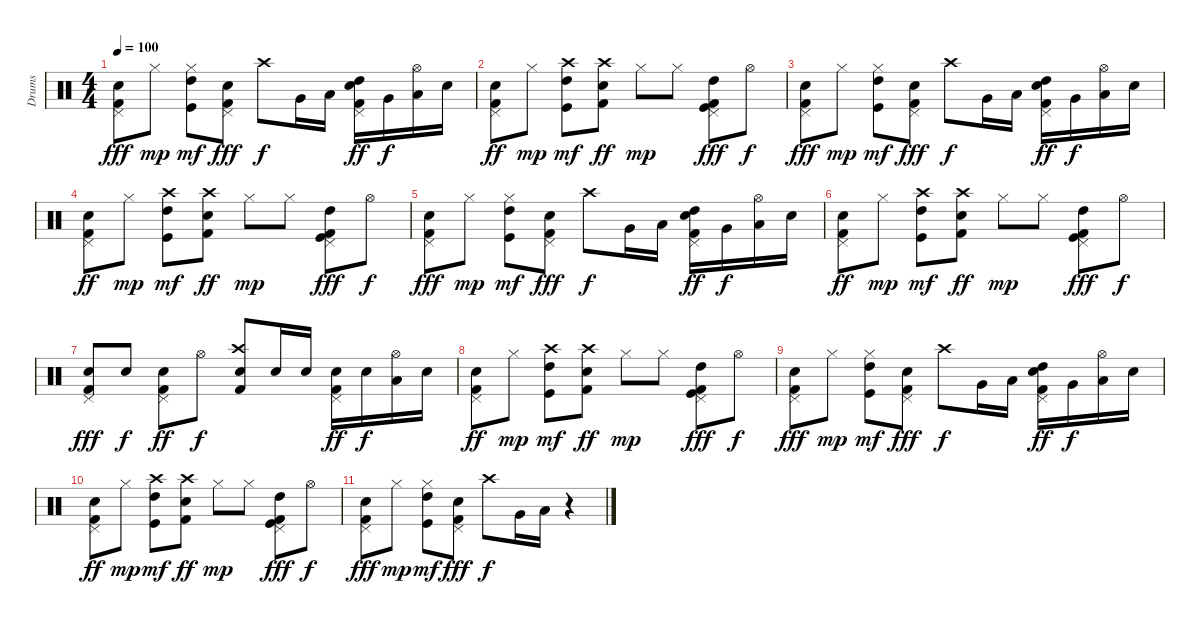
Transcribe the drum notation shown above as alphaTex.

\track ("Drums" "Drums") {instrument percussion}
\staff {score}
\articulation defaults
\ts (4 4)
\tempo 100
\clef neutral
\ks c
("Pedal Hi-Hat (hit)" "Snare (hit) 2" "Kick (hit) 2").8{dy fff} "Hi-Hat (closed)".8{dy mp} ("Hi-Hat (closed)" "Kick (hit)" "High Tom (hit)").8{dy mf} ("Pedal Hi-Hat (hit)" "Snare (hit) 2" "Kick (hit) 2").8{dy fff} "Crash high (hit)".8{dy f} "Very Low Tom (hit)".16 "Low Tom (hit)".16 ("Pedal Hi-Hat (hit)" "Snare (hit) 2" "High Tom (hit)" "Kick (hit) 2").16{dy ff} "Very Low Tom (hit)".16{dy f} ("Hi-Hat (open)" "Low Tom (hit)").16 "Snare (hit) 2".16 |
("Pedal Hi-Hat (hit)" "Snare (hit) 2" "Kick (hit) 2").8{dy ff} "Hi-Hat (closed)".8{dy mp} ("Crash high (hit)" "Kick (hit)" "High Tom (hit)").8{dy mf} ("Crash high (hit)" "Snare (hit) 2" "Kick (hit) 2").8{dy ff} "Hi-Hat (closed)".8{dy mp} "Hi-Hat (closed)".8 ("Pedal Hi-Hat (hit)" "Kick (hit)" "High Tom (hit)" "Kick (hit) 2").8{dy fff} "Hi-Hat (open)".8{dy f} |
("Pedal Hi-Hat (hit)" "Snare (hit) 2" "Kick (hit) 2").8{dy fff} "Hi-Hat (closed)".8{dy mp} ("Hi-Hat (closed)" "Kick (hit)" "High Tom (hit)").8{dy mf} ("Pedal Hi-Hat (hit)" "Snare (hit) 2" "Kick (hit) 2").8{dy fff} "Crash high (hit)".8{dy f} "Very Low Tom (hit)".16 "Low Tom (hit)".16 ("Pedal Hi-Hat (hit)" "Snare (hit) 2" "High Tom (hit)" "Kick (hit) 2").16{dy ff} "Very Low Tom (hit)".16{dy f} ("Hi-Hat (open)" "Low Tom (hit)").16 "Snare (hit) 2".16 |
("Pedal Hi-Hat (hit)" "Snare (hit) 2" "Kick (hit) 2").8{dy ff} "Hi-Hat (closed)".8{dy mp} ("Crash high (hit)" "Kick (hit)" "High Tom (hit)").8{dy mf} ("Crash high (hit)" "Snare (hit) 2" "Kick (hit) 2").8{dy ff} "Hi-Hat (closed)".8{dy mp} "Hi-Hat (closed)".8 ("Pedal Hi-Hat (hit)" "Kick (hit)" "High Tom (hit)" "Kick (hit) 2").8{dy fff} "Hi-Hat (open)".8{dy f} |
("Pedal Hi-Hat (hit)" "Snare (hit) 2" "Kick (hit) 2").8{dy fff} "Hi-Hat (closed)".8{dy mp} ("Hi-Hat (closed)" "Kick (hit)" "High Tom (hit)").8{dy mf} ("Pedal Hi-Hat (hit)" "Snare (hit) 2" "Kick (hit) 2").8{dy fff} "Crash high (hit)".8{dy f} "Very Low Tom (hit)".16 "Low Tom (hit)".16 ("Pedal Hi-Hat (hit)" "Snare (hit) 2" "High Tom (hit)" "Kick (hit) 2").16{dy ff} "Very Low Tom (hit)".16{dy f} ("Hi-Hat (open)" "Low Tom (hit)").16 "Snare (hit) 2".16 |
("Pedal Hi-Hat (hit)" "Snare (hit) 2" "Kick (hit) 2").8{dy ff} "Hi-Hat (closed)".8{dy mp} ("Crash high (hit)" "Kick (hit)" "High Tom (hit)").8{dy mf} ("Crash high (hit)" "Snare (hit) 2" "Kick (hit) 2").8{dy ff} "Hi-Hat (closed)".8{dy mp} "Hi-Hat (closed)".8 ("Pedal Hi-Hat (hit)" "Kick (hit)" "High Tom (hit)" "Kick (hit) 2").8{dy fff} "Hi-Hat (open)".8{dy f} |
("Pedal Hi-Hat (hit)" "Snare (hit) 2" "Kick (hit) 2").8{dy fff} "Snare (hit) 2".8{dy f} ("Pedal Hi-Hat (hit)" "Snare (hit) 2" "Kick (hit) 2").8{dy ff} "Hi-Hat (open)".8{dy f} ("Crash high (hit)" "Electric Snare (hit)" "Kick (hit) 2").8 "Snare (hit) 2".16 "Snare (hit) 2".16 ("Pedal Hi-Hat (hit)" "Snare (hit) 2" "Kick (hit) 2").16{dy ff} "Electric Snare (hit)".16{dy f} ("Hi-Hat (open)" "Low Tom (hit)").16 "Snare (hit) 2".16 |
("Pedal Hi-Hat (hit)" "Snare (hit) 2" "Kick (hit) 2").8{dy ff} "Hi-Hat (closed)".8{dy mp} ("Crash high (hit)" "Kick (hit)" "High Tom (hit)").8{dy mf} ("Crash high (hit)" "Snare (hit) 2" "Kick (hit) 2").8{dy ff} "Hi-Hat (closed)".8{dy mp} "Hi-Hat (closed)".8 ("Pedal Hi-Hat (hit)" "Kick (hit)" "High Tom (hit)" "Kick (hit) 2").8{dy fff} "Hi-Hat (open)".8{dy f} |
("Pedal Hi-Hat (hit)" "Snare (hit) 2" "Kick (hit) 2").8{dy fff} "Hi-Hat (closed)".8{dy mp} ("Hi-Hat (closed)" "Kick (hit)" "High Tom (hit)").8{dy mf} ("Pedal Hi-Hat (hit)" "Snare (hit) 2" "Kick (hit) 2").8{dy fff} "Crash high (hit)".8{dy f} "Very Low Tom (hit)".16 "Low Tom (hit)".16 ("Pedal Hi-Hat (hit)" "Snare (hit) 2" "High Tom (hit)" "Kick (hit) 2").16{dy ff} "Very Low Tom (hit)".16{dy f} ("Hi-Hat (open)" "Low Tom (hit)").16 "Snare (hit) 2".16 |
("Pedal Hi-Hat (hit)" "Snare (hit) 2" "Kick (hit) 2").8{dy ff} "Hi-Hat (closed)".8{dy mp} ("Crash high (hit)" "Kick (hit)" "High Tom (hit)").8{dy mf} ("Crash high (hit)" "Snare (hit) 2" "Kick (hit) 2").8{dy ff} "Hi-Hat (closed)".8{dy mp} "Hi-Hat (closed)".8 ("Pedal Hi-Hat (hit)" "Kick (hit)" "High Tom (hit)" "Kick (hit) 2").8{dy fff} "Hi-Hat (open)".8{dy f} |
("Pedal Hi-Hat (hit)" "Snare (hit) 2" "Kick (hit) 2").8{dy fff} "Hi-Hat (closed)".8{dy mp} ("Hi-Hat (closed)" "Kick (hit)" "High Tom (hit)").8{dy mf} ("Pedal Hi-Hat (hit)" "Snare (hit) 2" "Kick (hit) 2").8{dy fff} "Crash high (hit)".8{dy f} "Very Low Tom (hit)".16 "Low Tom (hit)".16 r.4
